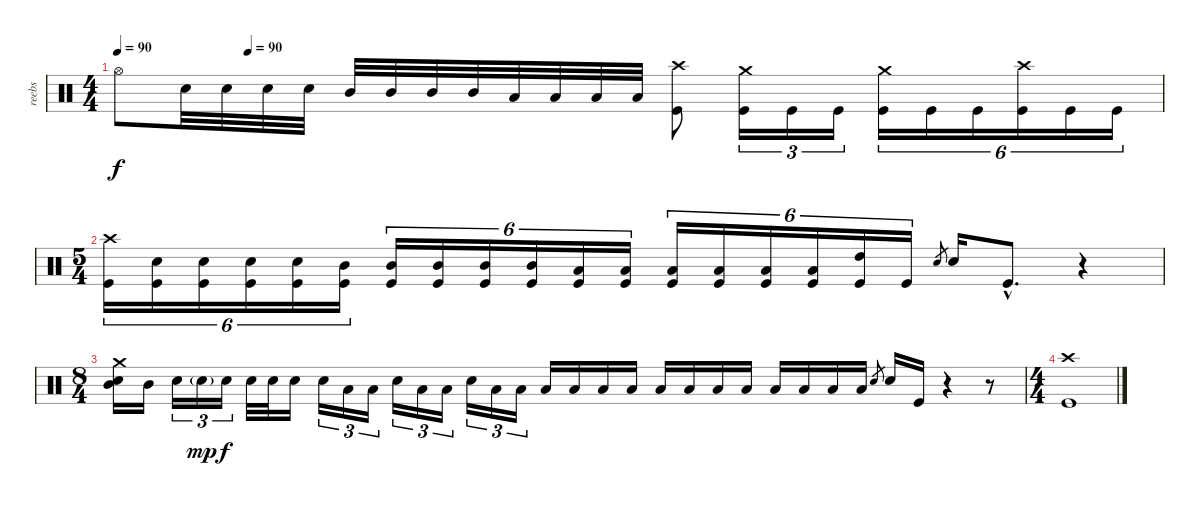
\track ("reebs" "reebs") {instrument percussion}
\staff {score}
\articulation defaults
\ts (4 4)
\tempo 90
\tempo (90 0.125)
\clef neutral
\ks c "Hi-Hat (open)".8{dy f} "Electric Snare (hit)".32 "Electric Snare (hit)".32 "Electric Snare (hit)".32 "Electric Snare (hit)".32 "Mid Tom (hit)".32 "Mid Tom (hit)".32 "Mid Tom (hit)".32 "Mid Tom (hit)".32 "Low Tom (hit)".32 "Low Tom (hit)".32 "Low Tom (hit)".32 "Low Tom (hit)".32
("Crash high (hit)" "Kick (hit)").8 ("Crash medium (hit)" "Kick (hit)").16{tu (3 2)} "Kick (hit)".16{tu (3 2)} "Kick (hit)".16{tu (3 2)} ("Crash medium (hit)" "Kick (hit)").16{tu (6 4)} "Kick (hit)".16{tu (6 4)} "Kick (hit)".16{tu (6 4)} ("Crash high (hit)" "Kick (hit)").16{tu (6 4)} "Kick (hit)".16{tu (6 4)} "Kick (hit)".16{tu (6 4)} |
\ts (5 4)
("Crash high (hit)" "Kick (hit)").16{tu (6 4)} ("Electric Snare (hit)" "Kick (hit)").16{tu (6 4)} ("Electric Snare (hit)" "Kick (hit)").16{tu (6 4)} ("Electric Snare (hit)" "Kick (hit)").16{tu (6 4)} ("Electric Snare (hit)" "Kick (hit)").16{tu (6 4)} ("Mid Tom (hit)" "Kick (hit)").16{tu (6 4)} ("Mid Tom (hit)" "Kick (hit)").16{tu (6 4)} ("Mid Tom (hit)" "Kick (hit)").16{tu (6 4)} ("Mid Tom (hit)" "Kick (hit)").16{tu (6 4)} ("Mid Tom (hit)" "Kick (hit)").16{tu (6 4)} ("Low Tom (hit)" "Kick (hit)").16{tu (6 4)} ("Low Tom (hit)" "Kick (hit)").16{tu (6 4)} ("Low Tom (hit)" "Kick (hit)").16{tu (6 4)} ("Low Tom (hit)" "Kick (hit)").16{tu (6 4)} ("Low Tom (hit)" "Kick (hit)").16{tu (6 4)} ("Low Tom (hit)" "Kick (hit)").16{tu (6 4)} ("High Tom (hit)" "Kick (hit)").16{tu (6 4)} "Kick (hit)".16{tu (6 4)} "Electric Snare (hit)".8{gr} "Electric Snare (hit)".16 "Kick (hit)"{hac}.8{d} r.4 |
\ts (8 4)
("Crash medium (hit)" "Mid Tom (hit)" "Electric Snare (hit)").16 "Mid Tom (hit)".16 "Electric Snare (hit)".16{tu (3 2)} "Electric Snare (hit)"{g}.16{tu (3 2) dy mp} "Electric Snare (hit)".16{tu (3 2) dy f} "Electric Snare (hit)".32 "Electric Snare (hit)".32 "Electric Snare (hit)".16 "Electric Snare (hit)".16{tu (3 2)} "Low Tom (hit)".16{tu (3 2)} "Low Floor Tom (hit)".16{tu (3 2)} "Electric Snare (hit)".16{tu (3 2)} "Low Tom (hit)".16{tu (3 2)} "Low Floor Tom (hit)".16{tu (3 2)} "Electric Snare (hit)".16{tu (3 2)} "Low Tom (hit)".16{tu (3 2)} "Low Floor Tom (hit)".16{tu (3 2)} "Low Tom (hit)".16 "Low Tom (hit)".16 "Low Floor Tom (hit)".16 "Low Tom (hit)".16 "Low Tom (hit)".16 "Low Floor Tom (hit)".16 "Low Tom (hit)".16 "Low Tom (hit)".16 "Low Floor Tom (hit)".16 "Low Tom (hit)".16 "Low Tom (hit)".16 "Low Floor Tom (hit)".16 "Electric Snare (hit)".8{gr} "Electric Snare (hit)".16 "Kick (hit)".16 r.4 r.8 |
\ts (4 4)
("Crash high (hit)" "Kick (hit)").1
